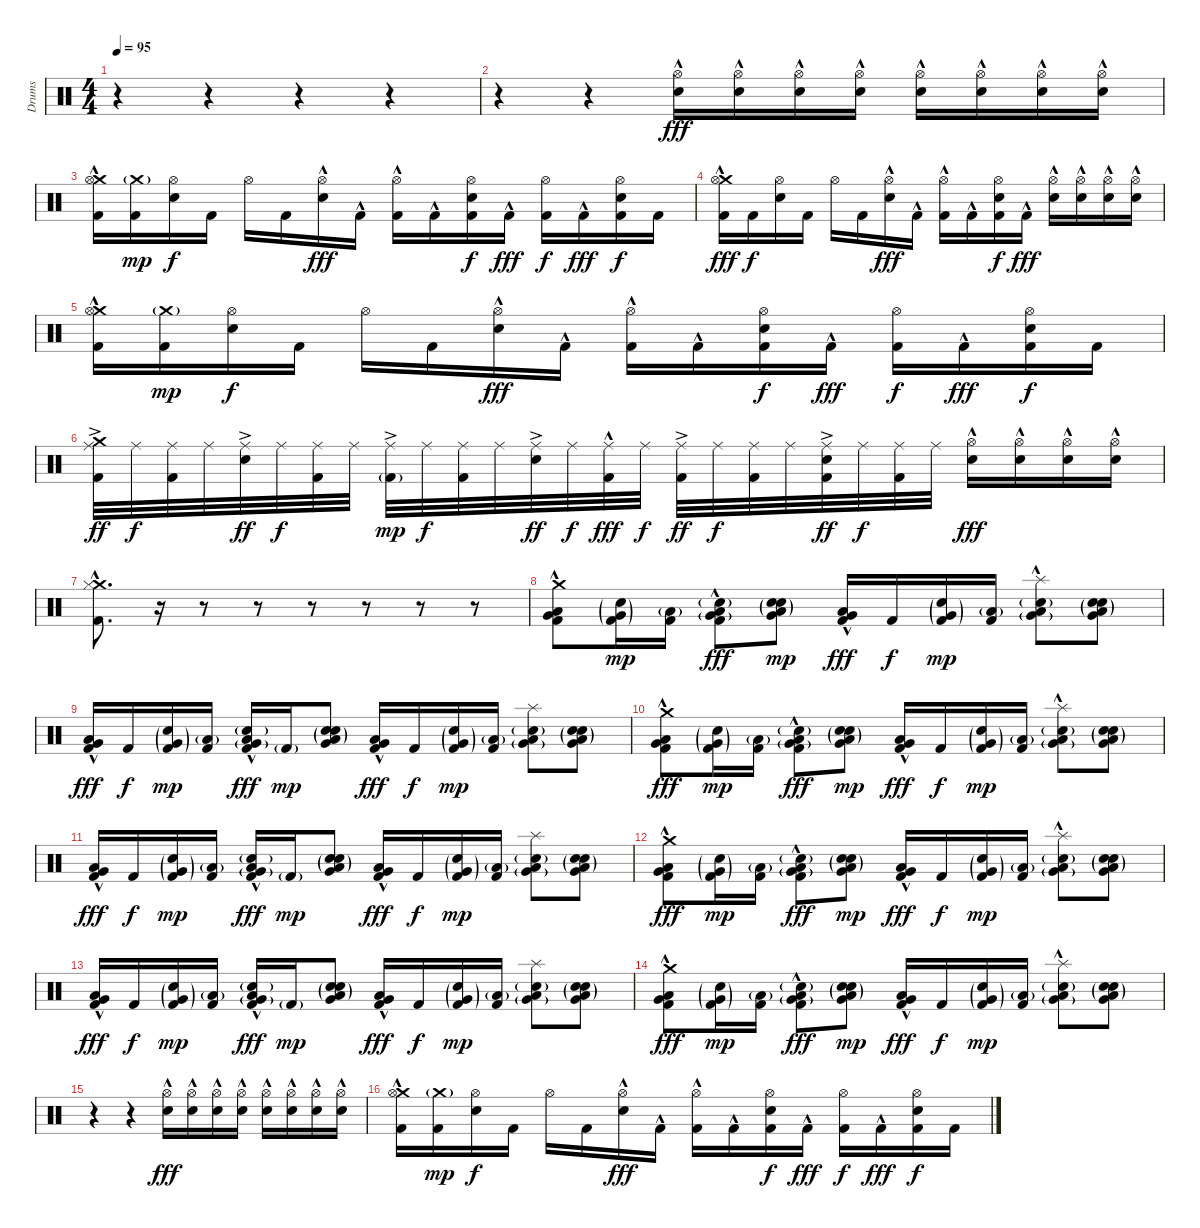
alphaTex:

\track ("Drums" "Drums") {instrument percussion}
\staff {score}
\articulation defaults
\ts (4 4)
\tempo 95
\clef neutral
\ks c
r.4{dy ff} r.4 r.4 r.4 |
r.4 r.4 ("Hi-Hat (open)" "Snare (hit) 2"{hac}).16{dy fff} ("Hi-Hat (open)" "Snare (hit) 2"{hac}).16 ("Hi-Hat (open)" "Snare (hit) 2"{hac}).16 ("Hi-Hat (open)" "Snare (hit) 2"{hac}).16 ("Hi-Hat (open)" "Snare (hit) 2"{hac}).16 ("Hi-Hat (open)" "Snare (hit) 2"{hac}).16 ("Hi-Hat (open)" "Snare (hit) 2"{hac}).16 ("Hi-Hat (open)" "Snare (hit) 2"{hac}).16 |
("Crash medium (hit)" "Hi-Hat (open)" "Kick (hit) 2"{hac}).16 ("Crash medium (hit)"{g} "Kick (hit) 2").16{dy mp} ("Hi-Hat (open)" "Snare (hit) 2").16{dy f} "Kick (hit) 2".16 "Hi-Hat (open)".16 "Kick (hit) 2".16 ("Hi-Hat (open)" "Snare (hit) 2"{hac}).16{dy fff} "Kick (hit) 2"{hac}.16 ("Hi-Hat (open)" "Kick (hit) 2"{hac}).16 "Kick (hit) 2"{hac}.16 ("Hi-Hat (open)" "Snare (hit) 2" "Kick (hit) 2").16{dy f} "Kick (hit) 2"{hac}.16{dy fff} ("Hi-Hat (open)" "Kick (hit) 2").16{dy f} "Kick (hit) 2"{hac}.16{dy fff} ("Hi-Hat (open)" "Snare (hit) 2" "Kick (hit) 2").16{dy f} "Kick (hit) 2".16 |
("Crash medium (hit)" "Hi-Hat (open)" "Kick (hit) 2"{hac}).16{dy fff} "Kick (hit) 2".16{dy f} ("Hi-Hat (open)" "Snare (hit) 2").16 "Kick (hit) 2".16 "Hi-Hat (open)".16 "Kick (hit) 2".16 ("Hi-Hat (open)" "Snare (hit) 2"{hac}).16{dy fff} "Kick (hit) 2"{hac}.16 ("Hi-Hat (open)" "Kick (hit) 2"{hac}).16 "Kick (hit) 2"{hac}.16 ("Hi-Hat (open)" "Snare (hit) 2" "Kick (hit) 2").16{dy f} "Kick (hit) 2"{hac}.16{dy fff} ("Hi-Hat (open)" "Snare (hit) 2"{hac}).16 ("Hi-Hat (open)" "Snare (hit) 2"{hac}).16 ("Hi-Hat (open)" "Snare (hit) 2"{hac}).16 ("Hi-Hat (open)" "Snare (hit) 2"{hac}).16 |
("Crash medium (hit)" "Hi-Hat (open)" "Kick (hit) 2"{hac}).16 ("Crash medium (hit)"{g} "Kick (hit) 2").16{dy mp} ("Hi-Hat (open)" "Snare (hit) 2").16{dy f} "Kick (hit) 2".16 "Hi-Hat (open)".16 "Kick (hit) 2".16 ("Hi-Hat (open)" "Snare (hit) 2"{hac}).16{dy fff} "Kick (hit) 2"{hac}.16 ("Hi-Hat (open)" "Kick (hit) 2"{hac}).16 "Kick (hit) 2"{hac}.16 ("Hi-Hat (open)" "Snare (hit) 2" "Kick (hit) 2").16{dy f} "Kick (hit) 2"{hac}.16{dy fff} ("Hi-Hat (open)" "Kick (hit) 2").16{dy f} "Kick (hit) 2"{hac}.16{dy fff} ("Hi-Hat (open)" "Snare (hit) 2" "Kick (hit) 2").16{dy f} "Kick (hit) 2".16 |
("Crash medium (hit)" "Ride (middle)"{ac} "Kick (hit) 2").32{dy ff} "Ride (middle)".32{dy f} ("Ride (middle)" "Kick (hit) 2").32 "Ride (middle)".32 ("Ride (middle)"{ac} "Snare (hit) 2").32{dy ff} "Ride (middle)".32{dy f} ("Ride (middle)" "Kick (hit) 2").32 "Ride (middle)".32 ("Ride (middle)"{ac} "Kick (hit) 2"{g}).32{dy mp} "Ride (middle)".32{dy f} ("Ride (middle)" "Kick (hit) 2").32 "Ride (middle)".32 ("Ride (middle)"{ac} "Snare (hit) 2").32{dy ff} "Ride (middle)".32{dy f} ("Ride (middle)" "Kick (hit) 2"{hac}).32{dy fff} "Ride (middle)".32{dy f} ("Ride (middle)"{ac} "Kick (hit) 2").32{dy ff} "Ride (middle)".32{dy f} ("Ride (middle)" "Kick (hit) 2").32 "Ride (middle)".32 ("Ride (middle)"{ac} "Snare (hit) 2" "Kick (hit) 2").32{dy ff} "Ride (middle)".32{dy f} ("Ride (middle)" "Kick (hit) 2").32 "Ride (middle)".32 ("Hi-Hat (open)" "Snare (hit) 2"{hac}).16{dy fff} ("Hi-Hat (open)" "Snare (hit) 2"{hac}).16 ("Hi-Hat (open)" "Snare (hit) 2"{hac}).16 ("Hi-Hat (open)" "Snare (hit) 2"{hac}).16 |
("Crash medium (hit)"{hac} "Hi-Hat (closed)" "Kick (hit) 2"{hac}).8{d} r.16{volume 0} r.8 r.8 r.8 r.8 r.8 r.8 |
("Crash medium (hit)" "Very Low Tom (hit)"{hac} "Low Floor Tom (hit)"{hac} "Kick (hit) 2"{hac}).8{volume 13} ("Hand Clap (hit)"{g} "Very Low Tom (hit)"{g} "Kick (hit) 2"{g}).16{dy mp} ("Low Floor Tom (hit)"{g} "Kick (hit) 2").16 ("Very Low Tom (hit)"{g} "Low Floor Tom (hit)"{hac} "Snare (hit) 2"{g} "Kick (hit) 2"{hac}).8{dy fff} ("Hand Clap (hit)"{g} "Snare (hit) 2"{g} "Very Low Tom (hit)" "Low Tom (hit)"{g}).8{dy mp} ("Very Low Tom (hit)"{hac} "Low Floor Tom (hit)" "Kick (hit) 2"{hac}).16{dy fff} "Kick (hit) 2".16{dy f} ("Hand Clap (hit)"{g} "Very Low Tom (hit)"{g} "Kick (hit) 2"{g}).16{dy mp} ("Low Floor Tom (hit)"{g} "Kick (hit) 2").16 ("Splash (hit)" "Very Low Tom (hit)"{g} "Low Floor Tom (hit)"{hac} "Snare (hit) 2"{g}).8 ("Hand Clap (hit)"{g} "Snare (hit) 2"{g} "Very Low Tom (hit)" "Low Tom (hit)"{g}).8 |
("Very Low Tom (hit)"{hac} "Low Floor Tom (hit)" "Kick (hit) 2"{hac}).16{dy fff} "Kick (hit) 2".16{dy f} ("Hand Clap (hit)"{g} "Very Low Tom (hit)"{g} "Kick (hit) 2"{g}).16{dy mp} ("Low Floor Tom (hit)"{g} "Kick (hit) 2").16 ("Very Low Tom (hit)"{g} "Low Floor Tom (hit)"{hac} "Snare (hit) 2"{g} "Kick (hit) 2"{hac}).16{dy fff} "Kick (hit) 2"{g}.16{dy mp} ("Hand Clap (hit)"{g} "Snare (hit) 2"{g} "Very Low Tom (hit)" "Low Tom (hit)"{g}).8 ("Very Low Tom (hit)"{hac} "Low Floor Tom (hit)" "Kick (hit) 2").16{dy fff} "Kick (hit) 2".16{dy f} ("Hand Clap (hit)"{g} "Very Low Tom (hit)"{g} "Kick (hit) 2"{g}).16{dy mp} ("Low Floor Tom (hit)"{g} "Kick (hit) 2").16 ("Splash (hit)" "Very Low Tom (hit)"{g} "Low Floor Tom (hit)" "Snare (hit) 2"{g}).8 ("Hand Clap (hit)"{g} "Snare (hit) 2"{g} "Very Low Tom (hit)" "Low Tom (hit)"{g}).8 |
("Crash medium (hit)" "Very Low Tom (hit)"{hac} "Low Floor Tom (hit)"{hac} "Kick (hit) 2"{hac}).8{dy fff} ("Hand Clap (hit)"{g} "Very Low Tom (hit)"{g} "Kick (hit) 2"{g}).16{dy mp} ("Low Floor Tom (hit)"{g} "Kick (hit) 2").16 ("Very Low Tom (hit)"{g} "Low Floor Tom (hit)"{hac} "Snare (hit) 2"{g} "Kick (hit) 2"{hac}).8{dy fff} ("Hand Clap (hit)"{g} "Snare (hit) 2"{g} "Very Low Tom (hit)" "Low Tom (hit)"{g}).8{dy mp} ("Very Low Tom (hit)"{hac} "Low Floor Tom (hit)" "Kick (hit) 2"{hac}).16{dy fff} "Kick (hit) 2".16{dy f} ("Hand Clap (hit)"{g} "Very Low Tom (hit)"{g} "Kick (hit) 2"{g}).16{dy mp} ("Low Floor Tom (hit)"{g} "Kick (hit) 2").16 ("Splash (hit)" "Very Low Tom (hit)"{g} "Low Floor Tom (hit)"{hac} "Snare (hit) 2"{g}).8 ("Hand Clap (hit)"{g} "Snare (hit) 2"{g} "Very Low Tom (hit)" "Low Tom (hit)"{g}).8 |
("Very Low Tom (hit)"{hac} "Low Floor Tom (hit)" "Kick (hit) 2"{hac}).16{dy fff} "Kick (hit) 2".16{dy f} ("Hand Clap (hit)"{g} "Very Low Tom (hit)"{g} "Kick (hit) 2"{g}).16{dy mp} ("Low Floor Tom (hit)"{g} "Kick (hit) 2").16 ("Very Low Tom (hit)"{g} "Low Floor Tom (hit)"{hac} "Snare (hit) 2"{g} "Kick (hit) 2"{hac}).16{dy fff} "Kick (hit) 2"{g}.16{dy mp} ("Hand Clap (hit)"{g} "Snare (hit) 2"{g} "Very Low Tom (hit)" "Low Tom (hit)"{g}).8 ("Very Low Tom (hit)"{hac} "Low Floor Tom (hit)" "Kick (hit) 2").16{dy fff} "Kick (hit) 2".16{dy f} ("Hand Clap (hit)"{g} "Very Low Tom (hit)"{g} "Kick (hit) 2"{g}).16{dy mp} ("Low Floor Tom (hit)"{g} "Kick (hit) 2").16 ("Splash (hit)" "Very Low Tom (hit)"{g} "Low Floor Tom (hit)" "Snare (hit) 2"{g}).8 ("Hand Clap (hit)"{g} "Snare (hit) 2"{g} "Very Low Tom (hit)" "Low Tom (hit)"{g}).8 |
("Crash medium (hit)" "Very Low Tom (hit)"{hac} "Low Floor Tom (hit)"{hac} "Kick (hit) 2"{hac}).8{dy fff} ("Hand Clap (hit)"{g} "Very Low Tom (hit)"{g} "Kick (hit) 2"{g}).16{dy mp} ("Low Floor Tom (hit)"{g} "Kick (hit) 2").16 ("Very Low Tom (hit)"{g} "Low Floor Tom (hit)"{hac} "Snare (hit) 2"{g} "Kick (hit) 2"{hac}).8{dy fff} ("Hand Clap (hit)"{g} "Snare (hit) 2"{g} "Very Low Tom (hit)" "Low Tom (hit)"{g}).8{dy mp} ("Very Low Tom (hit)"{hac} "Low Floor Tom (hit)" "Kick (hit) 2"{hac}).16{dy fff} "Kick (hit) 2".16{dy f} ("Hand Clap (hit)"{g} "Very Low Tom (hit)"{g} "Kick (hit) 2"{g}).16{dy mp} ("Low Floor Tom (hit)"{g} "Kick (hit) 2").16 ("Splash (hit)" "Very Low Tom (hit)"{g} "Low Floor Tom (hit)"{hac} "Snare (hit) 2"{g}).8 ("Hand Clap (hit)"{g} "Snare (hit) 2"{g} "Very Low Tom (hit)" "Low Tom (hit)"{g}).8 |
("Very Low Tom (hit)"{hac} "Low Floor Tom (hit)" "Kick (hit) 2"{hac}).16{dy fff} "Kick (hit) 2".16{dy f} ("Hand Clap (hit)"{g} "Very Low Tom (hit)"{g} "Kick (hit) 2"{g}).16{dy mp} ("Low Floor Tom (hit)"{g} "Kick (hit) 2").16 ("Very Low Tom (hit)"{g} "Low Floor Tom (hit)"{hac} "Snare (hit) 2"{g} "Kick (hit) 2"{hac}).16{dy fff} "Kick (hit) 2"{g}.16{dy mp} ("Hand Clap (hit)"{g} "Snare (hit) 2"{g} "Very Low Tom (hit)" "Low Tom (hit)"{g}).8 ("Very Low Tom (hit)"{hac} "Low Floor Tom (hit)" "Kick (hit) 2").16{dy fff} "Kick (hit) 2".16{dy f} ("Hand Clap (hit)"{g} "Very Low Tom (hit)"{g} "Kick (hit) 2"{g}).16{dy mp} ("Low Floor Tom (hit)"{g} "Kick (hit) 2").16 ("Splash (hit)" "Very Low Tom (hit)"{g} "Low Floor Tom (hit)" "Snare (hit) 2"{g}).8 ("Hand Clap (hit)"{g} "Snare (hit) 2"{g} "Very Low Tom (hit)" "Low Tom (hit)"{g}).8 |
("Crash medium (hit)" "Very Low Tom (hit)"{hac} "Low Floor Tom (hit)"{hac} "Kick (hit) 2"{hac}).8{dy fff} ("Hand Clap (hit)"{g} "Very Low Tom (hit)"{g} "Kick (hit) 2"{g}).16{dy mp} ("Low Floor Tom (hit)"{g} "Kick (hit) 2").16 ("Very Low Tom (hit)"{g} "Low Floor Tom (hit)"{hac} "Snare (hit) 2"{g} "Kick (hit) 2"{hac}).8{dy fff} ("Hand Clap (hit)"{g} "Snare (hit) 2"{g} "Very Low Tom (hit)" "Low Tom (hit)"{g}).8{dy mp} ("Very Low Tom (hit)"{hac} "Low Floor Tom (hit)" "Kick (hit) 2"{hac}).16{dy fff} "Kick (hit) 2".16{dy f} ("Hand Clap (hit)"{g} "Very Low Tom (hit)"{g} "Kick (hit) 2"{g}).16{dy mp} ("Low Floor Tom (hit)"{g} "Kick (hit) 2").16 ("Splash (hit)" "Very Low Tom (hit)"{g} "Low Floor Tom (hit)"{hac} "Snare (hit) 2"{g}).8 ("Hand Clap (hit)"{g} "Snare (hit) 2"{g} "Very Low Tom (hit)" "Low Tom (hit)"{g}).8 |
r.4 r.4 ("Hi-Hat (open)" "Snare (hit) 2"{hac}).16{dy fff} ("Hi-Hat (open)" "Snare (hit) 2"{hac}).16 ("Hi-Hat (open)" "Snare (hit) 2"{hac}).16 ("Hi-Hat (open)" "Snare (hit) 2"{hac}).16 ("Hi-Hat (open)" "Snare (hit) 2"{hac}).16 ("Hi-Hat (open)" "Snare (hit) 2"{hac}).16 ("Hi-Hat (open)" "Snare (hit) 2"{hac}).16 ("Hi-Hat (open)" "Snare (hit) 2"{hac}).16 |
("Crash medium (hit)" "Hi-Hat (open)" "Kick (hit) 2"{hac}).16 ("Crash medium (hit)"{g} "Kick (hit) 2").16{dy mp} ("Hi-Hat (open)" "Snare (hit) 2").16{dy f} "Kick (hit) 2".16 "Hi-Hat (open)".16 "Kick (hit) 2".16 ("Hi-Hat (open)" "Snare (hit) 2"{hac}).16{dy fff} "Kick (hit) 2"{hac}.16 ("Hi-Hat (open)" "Kick (hit) 2"{hac}).16 "Kick (hit) 2"{hac}.16 ("Hi-Hat (open)" "Snare (hit) 2" "Kick (hit) 2").16{dy f} "Kick (hit) 2"{hac}.16{dy fff} ("Hi-Hat (open)" "Kick (hit) 2").16{dy f} "Kick (hit) 2"{hac}.16{dy fff} ("Hi-Hat (open)" "Snare (hit) 2" "Kick (hit) 2").16{dy f} "Kick (hit) 2".16
